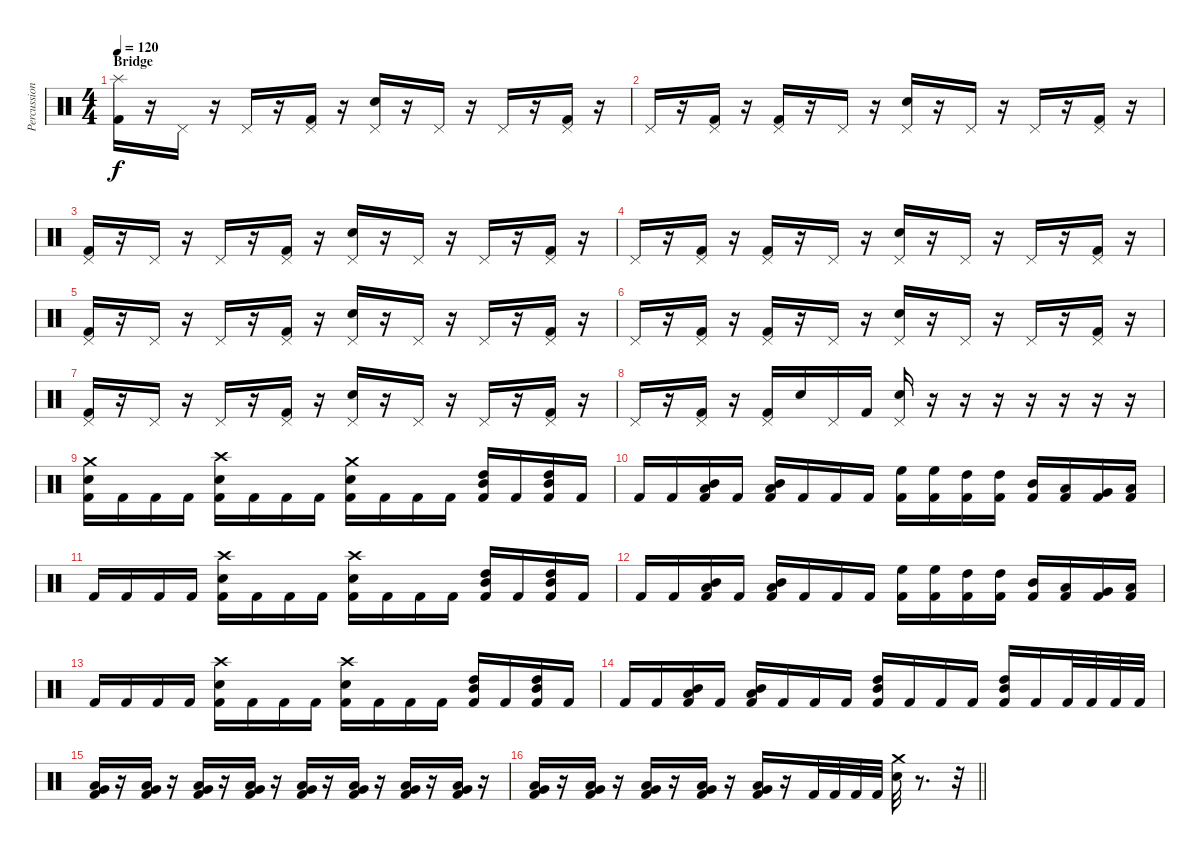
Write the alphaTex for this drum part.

\track ("Percussion" "Percussion") {instrument percussion}
\staff {score}
\articulation defaults
\ts (4 4)
\section ("" "Bridge")
\tempo 120
\clef neutral
\ks c
("Splash (hit)" "Kick (hit) 2").16{dy f} r.16 "Pedal Hi-Hat (hit)".16 r.16 "Pedal Hi-Hat (hit)".16 r.16 ("Pedal Hi-Hat (hit)" "Kick (hit) 2").16 r.16 ("Pedal Hi-Hat (hit)" "Electric Snare (hit)").16 r.16 "Pedal Hi-Hat (hit)".16 r.16 "Pedal Hi-Hat (hit)".16 r.16 ("Pedal Hi-Hat (hit)" "Kick (hit) 2").16 r.16 |
"Pedal Hi-Hat (hit)".16 r.16 ("Pedal Hi-Hat (hit)" "Kick (hit) 2").16 r.16 ("Pedal Hi-Hat (hit)" "Kick (hit) 2").16 r.16 "Pedal Hi-Hat (hit)".16 r.16 ("Pedal Hi-Hat (hit)" "Electric Snare (hit)").16 r.16 "Pedal Hi-Hat (hit)".16 r.16 "Pedal Hi-Hat (hit)".16 r.16 ("Pedal Hi-Hat (hit)" "Kick (hit) 2").16 r.16 |
("Pedal Hi-Hat (hit)" "Kick (hit) 2").16 r.16 "Pedal Hi-Hat (hit)".16 r.16 "Pedal Hi-Hat (hit)".16 r.16 ("Pedal Hi-Hat (hit)" "Kick (hit) 2").16 r.16 ("Pedal Hi-Hat (hit)" "Electric Snare (hit)").16 r.16 "Pedal Hi-Hat (hit)".16 r.16 "Pedal Hi-Hat (hit)".16 r.16 ("Pedal Hi-Hat (hit)" "Kick (hit) 2").16 r.16 |
"Pedal Hi-Hat (hit)".16 r.16 ("Pedal Hi-Hat (hit)" "Kick (hit) 2").16 r.16 ("Pedal Hi-Hat (hit)" "Kick (hit) 2").16 r.16 "Pedal Hi-Hat (hit)".16 r.16 ("Pedal Hi-Hat (hit)" "Electric Snare (hit)").16 r.16 "Pedal Hi-Hat (hit)".16 r.16 "Pedal Hi-Hat (hit)".16 r.16 ("Pedal Hi-Hat (hit)" "Kick (hit) 2").16 r.16 |
("Pedal Hi-Hat (hit)" "Kick (hit) 2").16 r.16 "Pedal Hi-Hat (hit)".16 r.16 "Pedal Hi-Hat (hit)".16 r.16 ("Pedal Hi-Hat (hit)" "Kick (hit) 2").16 r.16 ("Pedal Hi-Hat (hit)" "Electric Snare (hit)").16 r.16 "Pedal Hi-Hat (hit)".16 r.16 "Pedal Hi-Hat (hit)".16 r.16 ("Pedal Hi-Hat (hit)" "Kick (hit) 2").16 r.16 |
"Pedal Hi-Hat (hit)".16 r.16 ("Pedal Hi-Hat (hit)" "Kick (hit) 2").16 r.16 ("Pedal Hi-Hat (hit)" "Kick (hit) 2").16 r.16 "Pedal Hi-Hat (hit)".16 r.16 ("Pedal Hi-Hat (hit)" "Electric Snare (hit)").16 r.16 "Pedal Hi-Hat (hit)".16 r.16 "Pedal Hi-Hat (hit)".16 r.16 ("Pedal Hi-Hat (hit)" "Kick (hit) 2").16 r.16 |
("Pedal Hi-Hat (hit)" "Kick (hit) 2").16 r.16 "Pedal Hi-Hat (hit)".16 r.16 "Pedal Hi-Hat (hit)".16 r.16 ("Pedal Hi-Hat (hit)" "Kick (hit) 2").16 r.16 ("Pedal Hi-Hat (hit)" "Electric Snare (hit)").16 r.16 "Pedal Hi-Hat (hit)".16 r.16 "Pedal Hi-Hat (hit)".16 r.16 ("Pedal Hi-Hat (hit)" "Kick (hit) 2").16 r.16 |
"Pedal Hi-Hat (hit)".16 r.16 ("Pedal Hi-Hat (hit)" "Kick (hit) 2").16 r.16 ("Pedal Hi-Hat (hit)" "Kick (hit) 2").16 "Electric Snare (hit)".16 "Pedal Hi-Hat (hit)".16 "Kick (hit) 2".16 ("Pedal Hi-Hat (hit)" "Electric Snare (hit)").16 r.16 r.16 r.16 r.16 r.16 r.16 r.16 |
("Crash medium (hit)" "Electric Snare (hit)" "Kick (hit) 2").16 "Kick (hit) 2".16 "Kick (hit) 2".16 "Kick (hit) 2".16 ("Crash high (hit)" "Electric Snare (hit)" "Kick (hit) 2").16 "Kick (hit) 2".16 "Kick (hit) 2".16 "Kick (hit) 2".16 ("Crash medium (hit)" "Electric Snare (hit)" "Kick (hit) 2").16 "Kick (hit) 2".16 "Kick (hit) 2".16 "Kick (hit) 2".16 ("High Tom (hit)" "Mid Tom (hit)" "Kick (hit) 2").16 "Kick (hit) 2".16 ("High Tom (hit)" "Mid Tom (hit)" "Kick (hit) 2").16 "Kick (hit) 2".16 |
"Kick (hit) 2".16 "Kick (hit) 2".16 ("Mid Tom (hit)" "Low Tom (hit)" "Kick (hit) 2").16 "Kick (hit) 2".16 ("Mid Tom (hit)" "Low Tom (hit)" "Kick (hit) 2").16 "Kick (hit) 2".16 "Kick (hit) 2".16 "Kick (hit) 2".16 ("High Floor Tom (hit)" "Kick (hit) 2").16 ("High Floor Tom (hit)" "Kick (hit) 2").16 ("High Tom (hit)" "Kick (hit) 2").16 ("High Tom (hit)" "Kick (hit) 2").16 ("Mid Tom (hit)" "Kick (hit) 2").16 ("Low Tom (hit)" "Kick (hit) 2").16 ("Very Low Tom (hit)" "Kick (hit) 2").16 ("Low Floor Tom (hit)" "Kick (hit) 2").16 |
"Kick (hit) 2".16 "Kick (hit) 2".16 "Kick (hit) 2".16 "Kick (hit) 2".16 ("Crash high (hit)" "Electric Snare (hit)" "Kick (hit) 2").16 "Kick (hit) 2".16 "Kick (hit) 2".16 "Kick (hit) 2".16 ("Crash high (hit)" "Electric Snare (hit)" "Kick (hit) 2").16 "Kick (hit) 2".16 "Kick (hit) 2".16 "Kick (hit) 2".16 ("High Tom (hit)" "Mid Tom (hit)" "Kick (hit) 2").16 "Kick (hit) 2".16 ("High Tom (hit)" "Mid Tom (hit)" "Kick (hit) 2").16 "Kick (hit) 2".16 |
"Kick (hit) 2".16 "Kick (hit) 2".16 ("Mid Tom (hit)" "Low Tom (hit)" "Kick (hit) 2").16 "Kick (hit) 2".16 ("Mid Tom (hit)" "Low Tom (hit)" "Kick (hit) 2").16 "Kick (hit) 2".16 "Kick (hit) 2".16 "Kick (hit) 2".16 ("High Floor Tom (hit)" "Kick (hit) 2").16 ("High Floor Tom (hit)" "Kick (hit) 2").16 ("High Tom (hit)" "Kick (hit) 2").16 ("High Tom (hit)" "Kick (hit) 2").16 ("Mid Tom (hit)" "Kick (hit) 2").16 ("Low Tom (hit)" "Kick (hit) 2").16 ("Very Low Tom (hit)" "Kick (hit) 2").16 ("Low Floor Tom (hit)" "Kick (hit) 2").16 |
"Kick (hit) 2".16 "Kick (hit) 2".16 "Kick (hit) 2".16 "Kick (hit) 2".16 ("Crash high (hit)" "Electric Snare (hit)" "Kick (hit) 2").16 "Kick (hit) 2".16 "Kick (hit) 2".16 "Kick (hit) 2".16 ("Crash high (hit)" "Electric Snare (hit)" "Kick (hit) 2").16 "Kick (hit) 2".16 "Kick (hit) 2".16 "Kick (hit) 2".16 ("High Tom (hit)" "Mid Tom (hit)" "Kick (hit) 2").16 "Kick (hit) 2".16 ("High Tom (hit)" "Mid Tom (hit)" "Kick (hit) 2").16 "Kick (hit) 2".16 |
"Kick (hit) 2".16 "Kick (hit) 2".16 ("Mid Tom (hit)" "Low Tom (hit)" "Kick (hit) 2").16 "Kick (hit) 2".16 ("Mid Tom (hit)" "Low Tom (hit)" "Kick (hit) 2").16 "Kick (hit) 2".16 "Kick (hit) 2".16 "Kick (hit) 2".16 ("High Tom (hit)" "Mid Tom (hit)" "Kick (hit) 2").16 "Kick (hit) 2".16 "Kick (hit) 2".16 "Kick (hit) 2".16 ("High Tom (hit)" "Mid Tom (hit)" "Kick (hit) 2").16 "Kick (hit) 2".16 "Kick (hit) 2".32 "Kick (hit) 2".32 "Kick (hit) 2".32 "Kick (hit) 2".32 |
("Very Low Tom (hit)" "Low Tom (hit)" "Kick (hit) 2").16 r.16 ("Very Low Tom (hit)" "Low Tom (hit)" "Kick (hit) 2").16 r.16 ("Very Low Tom (hit)" "Low Tom (hit)" "Kick (hit) 2").16 r.16 ("Very Low Tom (hit)" "Low Tom (hit)" "Kick (hit) 2").16 r.16 ("Very Low Tom (hit)" "Low Tom (hit)" "Kick (hit) 2").16 r.16 ("Very Low Tom (hit)" "Low Tom (hit)" "Kick (hit) 2").16 r.16 ("Very Low Tom (hit)" "Low Tom (hit)" "Kick (hit) 2").16 r.16 ("Very Low Tom (hit)" "Low Tom (hit)" "Kick (hit) 2").16 r.16 |
\barLineRight lightlight
("Very Low Tom (hit)" "Low Tom (hit)" "Kick (hit) 2").16 r.16 ("Very Low Tom (hit)" "Low Tom (hit)" "Kick (hit) 2").16 r.16 ("Very Low Tom (hit)" "Low Tom (hit)" "Kick (hit) 2").16 r.16 ("Very Low Tom (hit)" "Low Tom (hit)" "Kick (hit) 2").16 r.16 ("Very Low Tom (hit)" "Low Tom (hit)" "Kick (hit) 2").16 r.16 "Kick (hit) 2".32 "Kick (hit) 2".32 "Kick (hit) 2".32 "Kick (hit) 2".32 ("Crash medium (hit)" "Electric Snare (hit)").32 r.8{d} r.32
